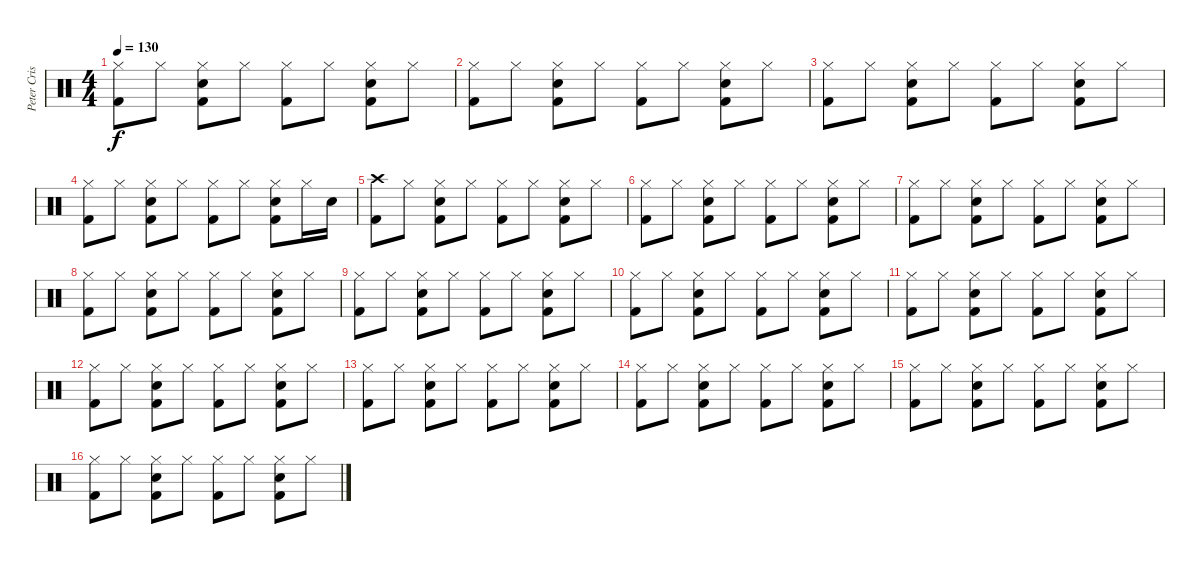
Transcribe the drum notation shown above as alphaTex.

\track ("Peter Criss" "Peter Cris") {instrument percussion}
\staff {score}
\articulation defaults
\ts (4 4)
\tempo 130
\clef neutral
\ks c
("Hi-Hat (closed)" "Kick (hit) 2").8{dy f} "Hi-Hat (closed)".8 ("Hi-Hat (closed)" "Electric Snare (hit)" "Kick (hit) 2").8 "Hi-Hat (closed)".8 ("Hi-Hat (closed)" "Kick (hit) 2").8 "Hi-Hat (closed)".8 ("Hi-Hat (closed)" "Electric Snare (hit)" "Kick (hit) 2").8 "Hi-Hat (closed)".8 |
("Hi-Hat (closed)" "Kick (hit) 2").8 "Hi-Hat (closed)".8 ("Hi-Hat (closed)" "Electric Snare (hit)" "Kick (hit) 2").8 "Hi-Hat (closed)".8 ("Hi-Hat (closed)" "Kick (hit) 2").8 "Hi-Hat (closed)".8 ("Hi-Hat (closed)" "Electric Snare (hit)" "Kick (hit) 2").8 "Hi-Hat (closed)".8 |
("Hi-Hat (closed)" "Kick (hit) 2").8 "Hi-Hat (closed)".8 ("Hi-Hat (closed)" "Electric Snare (hit)" "Kick (hit) 2").8 "Hi-Hat (closed)".8 ("Hi-Hat (closed)" "Kick (hit) 2").8 "Hi-Hat (closed)".8 ("Hi-Hat (closed)" "Electric Snare (hit)" "Kick (hit) 2").8 "Hi-Hat (closed)".8 |
("Hi-Hat (closed)" "Kick (hit) 2").8 "Hi-Hat (closed)".8 ("Hi-Hat (closed)" "Electric Snare (hit)" "Kick (hit) 2").8 "Hi-Hat (closed)".8 ("Hi-Hat (closed)" "Kick (hit) 2").8 "Hi-Hat (closed)".8 ("Hi-Hat (closed)" "Electric Snare (hit)" "Kick (hit) 2").8 "Hi-Hat (closed)".16 "Electric Snare (hit)".16 |
("Crash high (hit)" "Kick (hit) 2").8 "Hi-Hat (closed)".8 ("Hi-Hat (closed)" "Electric Snare (hit)" "Kick (hit) 2").8 "Hi-Hat (closed)".8 ("Hi-Hat (closed)" "Kick (hit) 2").8 "Hi-Hat (closed)".8 ("Hi-Hat (closed)" "Electric Snare (hit)" "Kick (hit) 2").8 "Hi-Hat (closed)".8 |
("Hi-Hat (closed)" "Kick (hit) 2").8 "Hi-Hat (closed)".8 ("Hi-Hat (closed)" "Electric Snare (hit)" "Kick (hit) 2").8 "Hi-Hat (closed)".8 ("Hi-Hat (closed)" "Kick (hit) 2").8 "Hi-Hat (closed)".8 ("Hi-Hat (closed)" "Electric Snare (hit)" "Kick (hit) 2").8 "Hi-Hat (closed)".8 |
("Hi-Hat (closed)" "Kick (hit) 2").8 "Hi-Hat (closed)".8 ("Hi-Hat (closed)" "Electric Snare (hit)" "Kick (hit) 2").8 "Hi-Hat (closed)".8 ("Hi-Hat (closed)" "Kick (hit) 2").8 "Hi-Hat (closed)".8 ("Hi-Hat (closed)" "Electric Snare (hit)" "Kick (hit) 2").8 "Hi-Hat (closed)".8 |
("Hi-Hat (closed)" "Kick (hit) 2").8 "Hi-Hat (closed)".8 ("Hi-Hat (closed)" "Electric Snare (hit)" "Kick (hit) 2").8 "Hi-Hat (closed)".8 ("Hi-Hat (closed)" "Kick (hit) 2").8 "Hi-Hat (closed)".8 ("Hi-Hat (closed)" "Electric Snare (hit)" "Kick (hit) 2").8 "Hi-Hat (closed)".8 |
("Hi-Hat (closed)" "Kick (hit) 2").8 "Hi-Hat (closed)".8 ("Hi-Hat (closed)" "Electric Snare (hit)" "Kick (hit) 2").8 "Hi-Hat (closed)".8 ("Hi-Hat (closed)" "Kick (hit) 2").8 "Hi-Hat (closed)".8 ("Hi-Hat (closed)" "Electric Snare (hit)" "Kick (hit) 2").8 "Hi-Hat (closed)".8 |
("Hi-Hat (closed)" "Kick (hit) 2").8 "Hi-Hat (closed)".8 ("Hi-Hat (closed)" "Electric Snare (hit)" "Kick (hit) 2").8 "Hi-Hat (closed)".8 ("Hi-Hat (closed)" "Kick (hit) 2").8 "Hi-Hat (closed)".8 ("Hi-Hat (closed)" "Electric Snare (hit)" "Kick (hit) 2").8 "Hi-Hat (closed)".8 |
("Hi-Hat (closed)" "Kick (hit) 2").8 "Hi-Hat (closed)".8 ("Hi-Hat (closed)" "Electric Snare (hit)" "Kick (hit) 2").8 "Hi-Hat (closed)".8 ("Hi-Hat (closed)" "Kick (hit) 2").8 "Hi-Hat (closed)".8 ("Hi-Hat (closed)" "Electric Snare (hit)" "Kick (hit) 2").8 "Hi-Hat (closed)".8 |
("Hi-Hat (closed)" "Kick (hit) 2").8 "Hi-Hat (closed)".8 ("Hi-Hat (closed)" "Electric Snare (hit)" "Kick (hit) 2").8 "Hi-Hat (closed)".8 ("Hi-Hat (closed)" "Kick (hit) 2").8 "Hi-Hat (closed)".8 ("Hi-Hat (closed)" "Electric Snare (hit)" "Kick (hit) 2").8 "Hi-Hat (closed)".8 |
("Hi-Hat (closed)" "Kick (hit) 2").8 "Hi-Hat (closed)".8 ("Hi-Hat (closed)" "Electric Snare (hit)" "Kick (hit) 2").8 "Hi-Hat (closed)".8 ("Hi-Hat (closed)" "Kick (hit) 2").8 "Hi-Hat (closed)".8 ("Hi-Hat (closed)" "Electric Snare (hit)" "Kick (hit) 2").8 "Hi-Hat (closed)".8 |
("Hi-Hat (closed)" "Kick (hit) 2").8 "Hi-Hat (closed)".8 ("Hi-Hat (closed)" "Electric Snare (hit)" "Kick (hit) 2").8 "Hi-Hat (closed)".8 ("Hi-Hat (closed)" "Kick (hit) 2").8 "Hi-Hat (closed)".8 ("Hi-Hat (closed)" "Electric Snare (hit)" "Kick (hit) 2").8 "Hi-Hat (closed)".8 |
("Hi-Hat (closed)" "Kick (hit) 2").8 "Hi-Hat (closed)".8 ("Hi-Hat (closed)" "Electric Snare (hit)" "Kick (hit) 2").8 "Hi-Hat (closed)".8 ("Hi-Hat (closed)" "Kick (hit) 2").8 "Hi-Hat (closed)".8 ("Hi-Hat (closed)" "Electric Snare (hit)" "Kick (hit) 2").8 "Hi-Hat (closed)".8 |
("Hi-Hat (closed)" "Kick (hit) 2").8 "Hi-Hat (closed)".8 ("Hi-Hat (closed)" "Electric Snare (hit)" "Kick (hit) 2").8 "Hi-Hat (closed)".8 ("Hi-Hat (closed)" "Kick (hit) 2").8 "Hi-Hat (closed)".8 ("Hi-Hat (closed)" "Electric Snare (hit)" "Kick (hit) 2").8 "Hi-Hat (closed)".8
